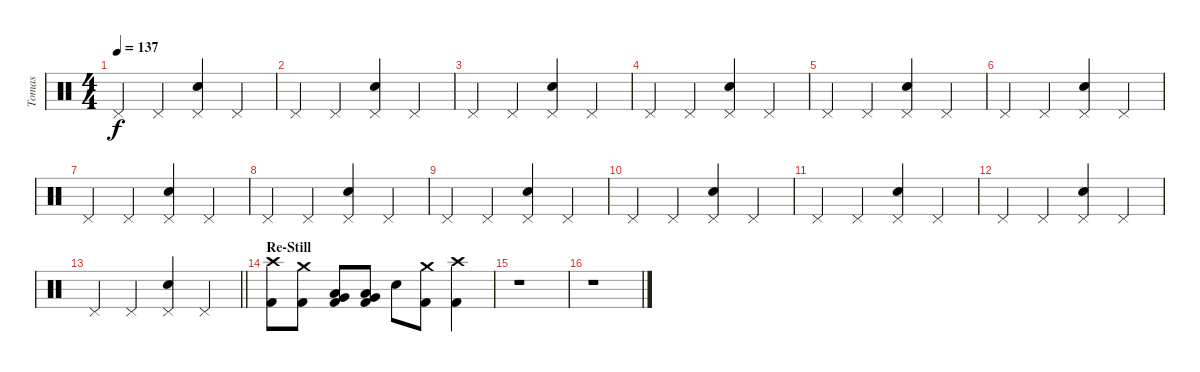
\track ("Tomas" "Tomas") {instrument percussion}
\staff {score}
\articulation defaults
\ts (4 4)
\tempo 137
\clef neutral
\ks c "Pedal Hi-Hat (hit)".4{dy f} "Pedal Hi-Hat (hit)".4
("Pedal Hi-Hat (hit)" "Electric Snare (hit)").4 "Pedal Hi-Hat (hit)".4 |
"Pedal Hi-Hat (hit)".4 "Pedal Hi-Hat (hit)".4 ("Pedal Hi-Hat (hit)" "Electric Snare (hit)").4 "Pedal Hi-Hat (hit)".4 |
"Pedal Hi-Hat (hit)".4 "Pedal Hi-Hat (hit)".4 ("Pedal Hi-Hat (hit)" "Electric Snare (hit)").4 "Pedal Hi-Hat (hit)".4 |
"Pedal Hi-Hat (hit)".4 "Pedal Hi-Hat (hit)".4 ("Pedal Hi-Hat (hit)" "Electric Snare (hit)").4 "Pedal Hi-Hat (hit)".4 |
"Pedal Hi-Hat (hit)".4 "Pedal Hi-Hat (hit)".4 ("Pedal Hi-Hat (hit)" "Electric Snare (hit)").4 "Pedal Hi-Hat (hit)".4 |
"Pedal Hi-Hat (hit)".4 "Pedal Hi-Hat (hit)".4 ("Pedal Hi-Hat (hit)" "Electric Snare (hit)").4 "Pedal Hi-Hat (hit)".4 |
"Pedal Hi-Hat (hit)".4 "Pedal Hi-Hat (hit)".4 ("Pedal Hi-Hat (hit)" "Electric Snare (hit)").4 "Pedal Hi-Hat (hit)".4 |
"Pedal Hi-Hat (hit)".4 "Pedal Hi-Hat (hit)".4 ("Pedal Hi-Hat (hit)" "Electric Snare (hit)").4 "Pedal Hi-Hat (hit)".4 |
"Pedal Hi-Hat (hit)".4 "Pedal Hi-Hat (hit)".4 ("Pedal Hi-Hat (hit)" "Electric Snare (hit)").4 "Pedal Hi-Hat (hit)".4 |
"Pedal Hi-Hat (hit)".4 "Pedal Hi-Hat (hit)".4 ("Pedal Hi-Hat (hit)" "Electric Snare (hit)").4 "Pedal Hi-Hat (hit)".4 |
"Pedal Hi-Hat (hit)".4 "Pedal Hi-Hat (hit)".4 ("Pedal Hi-Hat (hit)" "Electric Snare (hit)").4 "Pedal Hi-Hat (hit)".4 |
"Pedal Hi-Hat (hit)".4 "Pedal Hi-Hat (hit)".4 ("Pedal Hi-Hat (hit)" "Electric Snare (hit)").4 "Pedal Hi-Hat (hit)".4 |
\barLineRight lightlight "Pedal Hi-Hat (hit)".4 "Pedal Hi-Hat (hit)".4
("Pedal Hi-Hat (hit)" "Electric Snare (hit)").4 "Pedal Hi-Hat (hit)".4 |
\section ("" "Re-Still")
("Crash high (hit)" "Kick (hit) 2").8 ("Crash medium (hit)" "Kick (hit) 2").8 ("Low Tom (hit)" "Very Low Tom (hit)" "Kick (hit) 2").8 ("Low Tom (hit)" "Very Low Tom (hit)" "Kick (hit) 2").8 "Electric Snare (hit)".8 ("Crash medium (hit)" "Kick (hit) 2").8 ("Crash high (hit)" "Kick (hit) 2").4 |
r.1 |
r.1
